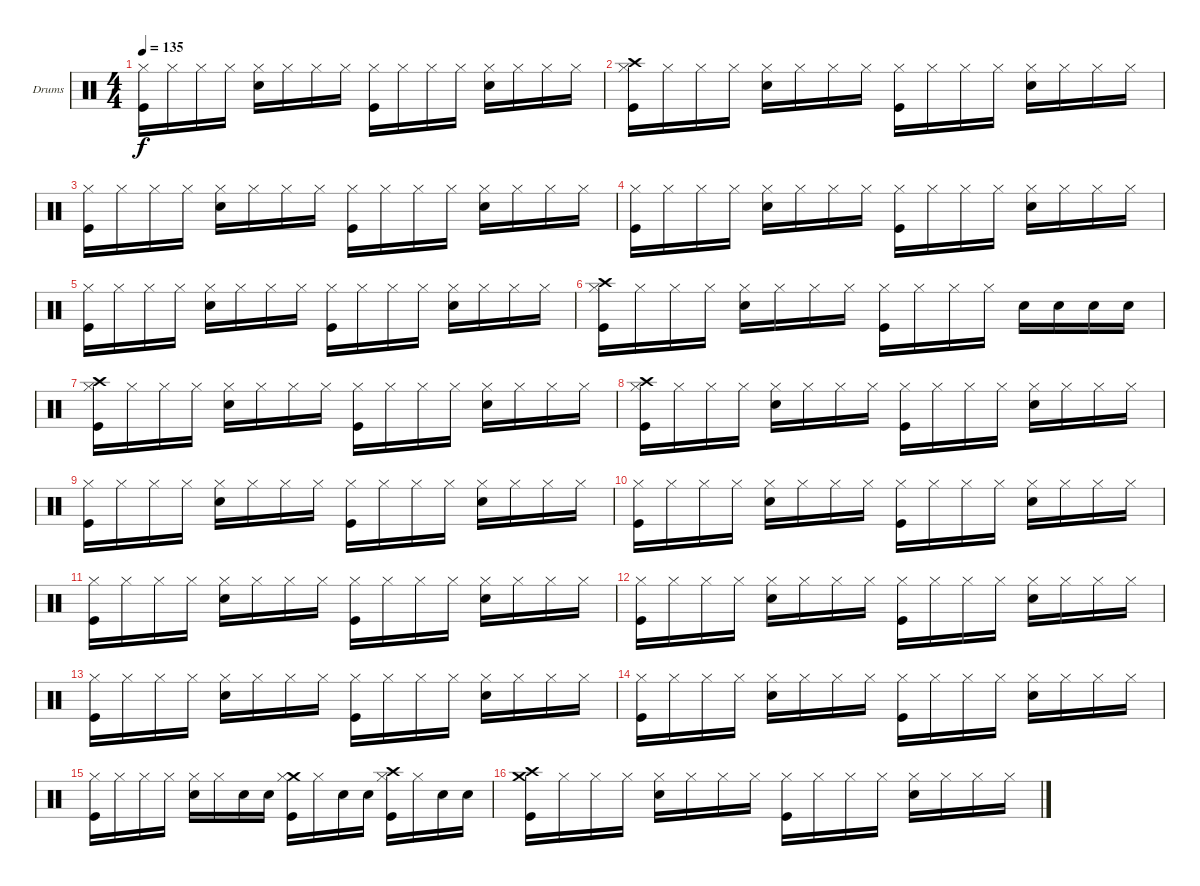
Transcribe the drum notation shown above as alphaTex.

\bracketExtendMode groupsimilarinstruments
\firstSystemTrackNameOrientation horizontal
\otherSystemsTrackNameOrientation horizontal
\track ("Ударные" "Drums") {instrument percussion}
\staff {score}
\articulation defaults
\ts (4 4)
\tempo 135
\clef neutral
\ks c
("Hi-Hat (closed)" "Kick (hit)").16{dy f} "Hi-Hat (closed)".16 "Hi-Hat (closed)".16 "Hi-Hat (closed)".16 ("Hi-Hat (closed)" "Snare (hit) 2").16 "Hi-Hat (closed)".16 "Hi-Hat (closed)".16 "Hi-Hat (closed)".16 ("Hi-Hat (closed)" "Kick (hit)").16 "Hi-Hat (closed)".16 "Hi-Hat (closed)".16 "Hi-Hat (closed)".16 ("Hi-Hat (closed)" "Snare (hit) 2").16 "Hi-Hat (closed)".16 "Hi-Hat (closed)".16 "Hi-Hat (closed)".16 |
("Crash high (hit)" "Hi-Hat (closed)" "Kick (hit)").16 "Hi-Hat (closed)".16 "Hi-Hat (closed)".16 "Hi-Hat (closed)".16 ("Hi-Hat (closed)" "Snare (hit) 2").16 "Hi-Hat (closed)".16 "Hi-Hat (closed)".16 "Hi-Hat (closed)".16 ("Hi-Hat (closed)" "Kick (hit)").16 "Hi-Hat (closed)".16 "Hi-Hat (closed)".16 "Hi-Hat (closed)".16 ("Hi-Hat (closed)" "Snare (hit) 2").16 "Hi-Hat (closed)".16 "Hi-Hat (closed)".16 "Hi-Hat (closed)".16 |
("Hi-Hat (closed)" "Kick (hit)").16 "Hi-Hat (closed)".16 "Hi-Hat (closed)".16 "Hi-Hat (closed)".16 ("Hi-Hat (closed)" "Snare (hit) 2").16 "Hi-Hat (closed)".16 "Hi-Hat (closed)".16 "Hi-Hat (closed)".16 ("Hi-Hat (closed)" "Kick (hit)").16 "Hi-Hat (closed)".16 "Hi-Hat (closed)".16 "Hi-Hat (closed)".16 ("Hi-Hat (closed)" "Snare (hit) 2").16 "Hi-Hat (closed)".16 "Hi-Hat (closed)".16 "Hi-Hat (closed)".16 |
("Hi-Hat (closed)" "Kick (hit)").16 "Hi-Hat (closed)".16 "Hi-Hat (closed)".16 "Hi-Hat (closed)".16 ("Hi-Hat (closed)" "Snare (hit) 2").16 "Hi-Hat (closed)".16 "Hi-Hat (closed)".16 "Hi-Hat (closed)".16 ("Hi-Hat (closed)" "Kick (hit)").16 "Hi-Hat (closed)".16 "Hi-Hat (closed)".16 "Hi-Hat (closed)".16 ("Hi-Hat (closed)" "Snare (hit) 2").16 "Hi-Hat (closed)".16 "Hi-Hat (closed)".16 "Hi-Hat (closed)".16 |
("Hi-Hat (closed)" "Kick (hit)").16 "Hi-Hat (closed)".16 "Hi-Hat (closed)".16 "Hi-Hat (closed)".16 ("Hi-Hat (closed)" "Snare (hit) 2").16 "Hi-Hat (closed)".16 "Hi-Hat (closed)".16 "Hi-Hat (closed)".16 ("Hi-Hat (closed)" "Kick (hit)").16 "Hi-Hat (closed)".16 "Hi-Hat (closed)".16 "Hi-Hat (closed)".16 ("Hi-Hat (closed)" "Snare (hit) 2").16 "Hi-Hat (closed)".16 "Hi-Hat (closed)".16 "Hi-Hat (closed)".16 |
("Crash high (hit)" "Hi-Hat (closed)" "Kick (hit)").16 "Hi-Hat (closed)".16 "Hi-Hat (closed)".16 "Hi-Hat (closed)".16 ("Hi-Hat (closed)" "Snare (hit) 2").16 "Hi-Hat (closed)".16 "Hi-Hat (closed)".16 "Hi-Hat (closed)".16 ("Hi-Hat (closed)" "Kick (hit)").16 "Hi-Hat (closed)".16 "Hi-Hat (closed)".16 "Hi-Hat (closed)".16 "Snare (hit) 2".16 "Snare (hit) 2".16 "Snare (hit) 2".16 "Snare (hit) 2".16 |
("Crash high (hit)" "Hi-Hat (closed)" "Kick (hit)").16 "Hi-Hat (closed)".16 "Hi-Hat (closed)".16 "Hi-Hat (closed)".16 ("Hi-Hat (closed)" "Snare (hit) 2").16 "Hi-Hat (closed)".16 "Hi-Hat (closed)".16 "Hi-Hat (closed)".16 ("Hi-Hat (closed)" "Kick (hit)").16 "Hi-Hat (closed)".16 "Hi-Hat (closed)".16 "Hi-Hat (closed)".16 ("Hi-Hat (closed)" "Snare (hit) 2").16 "Hi-Hat (closed)".16 "Hi-Hat (closed)".16 "Hi-Hat (closed)".16 |
("Crash high (hit)" "Hi-Hat (closed)" "Kick (hit)").16 "Hi-Hat (closed)".16 "Hi-Hat (closed)".16 "Hi-Hat (closed)".16 ("Hi-Hat (closed)" "Snare (hit) 2").16 "Hi-Hat (closed)".16 "Hi-Hat (closed)".16 "Hi-Hat (closed)".16 ("Hi-Hat (closed)" "Kick (hit)").16 "Hi-Hat (closed)".16 "Hi-Hat (closed)".16 "Hi-Hat (closed)".16 ("Hi-Hat (closed)" "Snare (hit) 2").16 "Hi-Hat (closed)".16 "Hi-Hat (closed)".16 "Hi-Hat (closed)".16 |
("Hi-Hat (closed)" "Kick (hit)").16 "Hi-Hat (closed)".16 "Hi-Hat (closed)".16 "Hi-Hat (closed)".16 ("Hi-Hat (closed)" "Snare (hit) 2").16 "Hi-Hat (closed)".16 "Hi-Hat (closed)".16 "Hi-Hat (closed)".16 ("Hi-Hat (closed)" "Kick (hit)").16 "Hi-Hat (closed)".16 "Hi-Hat (closed)".16 "Hi-Hat (closed)".16 ("Hi-Hat (closed)" "Snare (hit) 2").16 "Hi-Hat (closed)".16 "Hi-Hat (closed)".16 "Hi-Hat (closed)".16 |
("Hi-Hat (closed)" "Kick (hit)").16 "Hi-Hat (closed)".16 "Hi-Hat (closed)".16 "Hi-Hat (closed)".16 ("Hi-Hat (closed)" "Snare (hit) 2").16 "Hi-Hat (closed)".16 "Hi-Hat (closed)".16 "Hi-Hat (closed)".16 ("Hi-Hat (closed)" "Kick (hit)").16 "Hi-Hat (closed)".16 "Hi-Hat (closed)".16 "Hi-Hat (closed)".16 ("Hi-Hat (closed)" "Snare (hit) 2").16 "Hi-Hat (closed)".16 "Hi-Hat (closed)".16 "Hi-Hat (closed)".16 |
("Hi-Hat (closed)" "Kick (hit)").16 "Hi-Hat (closed)".16 "Hi-Hat (closed)".16 "Hi-Hat (closed)".16 ("Hi-Hat (closed)" "Snare (hit) 2").16 "Hi-Hat (closed)".16 "Hi-Hat (closed)".16 "Hi-Hat (closed)".16 ("Hi-Hat (closed)" "Kick (hit)").16 "Hi-Hat (closed)".16 "Hi-Hat (closed)".16 "Hi-Hat (closed)".16 ("Hi-Hat (closed)" "Snare (hit) 2").16 "Hi-Hat (closed)".16 "Hi-Hat (closed)".16 "Hi-Hat (closed)".16 |
("Hi-Hat (closed)" "Kick (hit)").16 "Hi-Hat (closed)".16 "Hi-Hat (closed)".16 "Hi-Hat (closed)".16 ("Hi-Hat (closed)" "Snare (hit) 2").16 "Hi-Hat (closed)".16 "Hi-Hat (closed)".16 "Hi-Hat (closed)".16 ("Hi-Hat (closed)" "Kick (hit)").16 "Hi-Hat (closed)".16 "Hi-Hat (closed)".16 "Hi-Hat (closed)".16 ("Hi-Hat (closed)" "Snare (hit) 2").16 "Hi-Hat (closed)".16 "Hi-Hat (closed)".16 "Hi-Hat (closed)".16 |
("Hi-Hat (closed)" "Kick (hit)").16 "Hi-Hat (closed)".16 "Hi-Hat (closed)".16 "Hi-Hat (closed)".16 ("Hi-Hat (closed)" "Snare (hit) 2").16 "Hi-Hat (closed)".16 "Hi-Hat (closed)".16 "Hi-Hat (closed)".16 ("Hi-Hat (closed)" "Kick (hit)").16 "Hi-Hat (closed)".16 "Hi-Hat (closed)".16 "Hi-Hat (closed)".16 ("Hi-Hat (closed)" "Snare (hit) 2").16 "Hi-Hat (closed)".16 "Hi-Hat (closed)".16 "Hi-Hat (closed)".16 |
("Hi-Hat (closed)" "Kick (hit)").16 "Hi-Hat (closed)".16 "Hi-Hat (closed)".16 "Hi-Hat (closed)".16 ("Hi-Hat (closed)" "Snare (hit) 2").16 "Hi-Hat (closed)".16 "Hi-Hat (closed)".16 "Hi-Hat (closed)".16 ("Hi-Hat (closed)" "Kick (hit)").16 "Hi-Hat (closed)".16 "Hi-Hat (closed)".16 "Hi-Hat (closed)".16 ("Hi-Hat (closed)" "Snare (hit) 2").16 "Hi-Hat (closed)".16 "Hi-Hat (closed)".16 "Hi-Hat (closed)".16 |
("Hi-Hat (closed)" "Kick (hit)").16 "Hi-Hat (closed)".16 "Hi-Hat (closed)".16 "Hi-Hat (closed)".16 ("Hi-Hat (closed)" "Snare (hit) 2").16 "Hi-Hat (closed)".16 "Snare (hit) 2".16 "Snare (hit) 2".16 ("Crash medium (hit)" "Hi-Hat (closed)" "Kick (hit)").16 "Hi-Hat (closed)".16 "Snare (hit) 2".16 "Snare (hit) 2".16 ("Crash high (hit)" "Hi-Hat (closed)" "Kick (hit)").16 "Hi-Hat (closed)".16 "Snare (hit) 2".16 "Snare (hit) 2".16 |
("Crash high (hit)" "Crash medium (hit)" "Kick (hit)").16 "Hi-Hat (closed)".16 "Hi-Hat (closed)".16 "Hi-Hat (closed)".16 ("Hi-Hat (closed)" "Snare (hit) 2").16 "Hi-Hat (closed)".16 "Hi-Hat (closed)".16 "Hi-Hat (closed)".16 ("Hi-Hat (closed)" "Kick (hit)").16 "Hi-Hat (closed)".16 "Hi-Hat (closed)".16 "Hi-Hat (closed)".16 ("Hi-Hat (closed)" "Snare (hit) 2").16 "Hi-Hat (closed)".16 "Hi-Hat (closed)".16 "Hi-Hat (closed)".16
